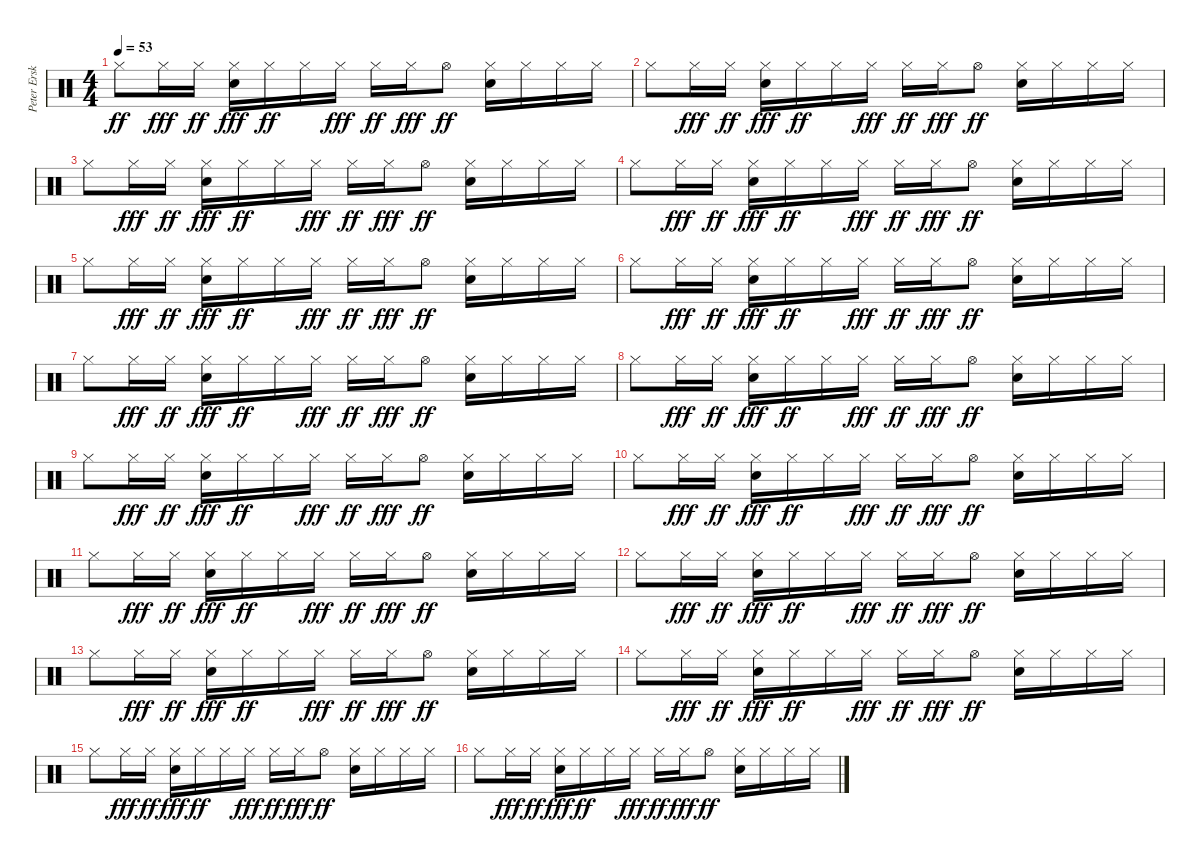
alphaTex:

\track ("Peter Erskine" "Peter Ersk") {instrument percussion}
\staff {score}
\articulation defaults
\ts (4 4)
\tempo 53
\clef neutral
\ks c "Hi-Hat (closed)".8{dy ff} "Hi-Hat (closed)".16{dy fff} "Hi-Hat (closed)".16{dy ff}
("Snare (hit) 2" "Hi-Hat (closed)").16{dy fff} "Hi-Hat (closed)".16{dy ff} "Hi-Hat (closed)".16 "Hi-Hat (closed)".16{dy fff} "Hi-Hat (closed)".16{dy ff} "Hi-Hat (closed)".16{dy fff} "Hi-Hat (open)".8{dy ff} ("Snare (hit) 2" "Hi-Hat (closed)").16 "Hi-Hat (closed)".16 "Hi-Hat (closed)".16 "Hi-Hat (closed)".16 |
"Hi-Hat (closed)".8 "Hi-Hat (closed)".16{dy fff} "Hi-Hat (closed)".16{dy ff} ("Snare (hit) 2" "Hi-Hat (closed)").16{dy fff} "Hi-Hat (closed)".16{dy ff} "Hi-Hat (closed)".16 "Hi-Hat (closed)".16{dy fff} "Hi-Hat (closed)".16{dy ff} "Hi-Hat (closed)".16{dy fff} "Hi-Hat (open)".8{dy ff} ("Snare (hit) 2" "Hi-Hat (closed)").16 "Hi-Hat (closed)".16 "Hi-Hat (closed)".16 "Hi-Hat (closed)".16 |
"Hi-Hat (closed)".8 "Hi-Hat (closed)".16{dy fff} "Hi-Hat (closed)".16{dy ff} ("Snare (hit) 2" "Hi-Hat (closed)").16{dy fff} "Hi-Hat (closed)".16{dy ff} "Hi-Hat (closed)".16 "Hi-Hat (closed)".16{dy fff} "Hi-Hat (closed)".16{dy ff} "Hi-Hat (closed)".16{dy fff} "Hi-Hat (open)".8{dy ff} ("Snare (hit) 2" "Hi-Hat (closed)").16 "Hi-Hat (closed)".16 "Hi-Hat (closed)".16 "Hi-Hat (closed)".16 |
"Hi-Hat (closed)".8 "Hi-Hat (closed)".16{dy fff} "Hi-Hat (closed)".16{dy ff} ("Snare (hit) 2" "Hi-Hat (closed)").16{dy fff} "Hi-Hat (closed)".16{dy ff} "Hi-Hat (closed)".16 "Hi-Hat (closed)".16{dy fff} "Hi-Hat (closed)".16{dy ff} "Hi-Hat (closed)".16{dy fff} "Hi-Hat (open)".8{dy ff} ("Snare (hit) 2" "Hi-Hat (closed)").16 "Hi-Hat (closed)".16 "Hi-Hat (closed)".16 "Hi-Hat (closed)".16 |
"Hi-Hat (closed)".8 "Hi-Hat (closed)".16{dy fff} "Hi-Hat (closed)".16{dy ff} ("Snare (hit) 2" "Hi-Hat (closed)").16{dy fff} "Hi-Hat (closed)".16{dy ff} "Hi-Hat (closed)".16 "Hi-Hat (closed)".16{dy fff} "Hi-Hat (closed)".16{dy ff} "Hi-Hat (closed)".16{dy fff} "Hi-Hat (open)".8{dy ff} ("Snare (hit) 2" "Hi-Hat (closed)").16 "Hi-Hat (closed)".16 "Hi-Hat (closed)".16 "Hi-Hat (closed)".16 |
"Hi-Hat (closed)".8 "Hi-Hat (closed)".16{dy fff} "Hi-Hat (closed)".16{dy ff} ("Snare (hit) 2" "Hi-Hat (closed)").16{dy fff} "Hi-Hat (closed)".16{dy ff} "Hi-Hat (closed)".16 "Hi-Hat (closed)".16{dy fff} "Hi-Hat (closed)".16{dy ff} "Hi-Hat (closed)".16{dy fff} "Hi-Hat (open)".8{dy ff} ("Snare (hit) 2" "Hi-Hat (closed)").16 "Hi-Hat (closed)".16 "Hi-Hat (closed)".16 "Hi-Hat (closed)".16 |
"Hi-Hat (closed)".8 "Hi-Hat (closed)".16{dy fff} "Hi-Hat (closed)".16{dy ff} ("Snare (hit) 2" "Hi-Hat (closed)").16{dy fff} "Hi-Hat (closed)".16{dy ff} "Hi-Hat (closed)".16 "Hi-Hat (closed)".16{dy fff} "Hi-Hat (closed)".16{dy ff} "Hi-Hat (closed)".16{dy fff} "Hi-Hat (open)".8{dy ff} ("Snare (hit) 2" "Hi-Hat (closed)").16 "Hi-Hat (closed)".16 "Hi-Hat (closed)".16 "Hi-Hat (closed)".16 |
"Hi-Hat (closed)".8 "Hi-Hat (closed)".16{dy fff} "Hi-Hat (closed)".16{dy ff} ("Snare (hit) 2" "Hi-Hat (closed)").16{dy fff} "Hi-Hat (closed)".16{dy ff} "Hi-Hat (closed)".16 "Hi-Hat (closed)".16{dy fff} "Hi-Hat (closed)".16{dy ff} "Hi-Hat (closed)".16{dy fff} "Hi-Hat (open)".8{dy ff} ("Snare (hit) 2" "Hi-Hat (closed)").16 "Hi-Hat (closed)".16 "Hi-Hat (closed)".16 "Hi-Hat (closed)".16 |
"Hi-Hat (closed)".8 "Hi-Hat (closed)".16{dy fff} "Hi-Hat (closed)".16{dy ff} ("Snare (hit) 2" "Hi-Hat (closed)").16{dy fff} "Hi-Hat (closed)".16{dy ff} "Hi-Hat (closed)".16 "Hi-Hat (closed)".16{dy fff} "Hi-Hat (closed)".16{dy ff} "Hi-Hat (closed)".16{dy fff} "Hi-Hat (open)".8{dy ff} ("Snare (hit) 2" "Hi-Hat (closed)").16 "Hi-Hat (closed)".16 "Hi-Hat (closed)".16 "Hi-Hat (closed)".16 |
"Hi-Hat (closed)".8 "Hi-Hat (closed)".16{dy fff} "Hi-Hat (closed)".16{dy ff} ("Snare (hit) 2" "Hi-Hat (closed)").16{dy fff} "Hi-Hat (closed)".16{dy ff} "Hi-Hat (closed)".16 "Hi-Hat (closed)".16{dy fff} "Hi-Hat (closed)".16{dy ff} "Hi-Hat (closed)".16{dy fff} "Hi-Hat (open)".8{dy ff} ("Snare (hit) 2" "Hi-Hat (closed)").16 "Hi-Hat (closed)".16 "Hi-Hat (closed)".16 "Hi-Hat (closed)".16 |
"Hi-Hat (closed)".8 "Hi-Hat (closed)".16{dy fff} "Hi-Hat (closed)".16{dy ff} ("Snare (hit) 2" "Hi-Hat (closed)").16{dy fff} "Hi-Hat (closed)".16{dy ff} "Hi-Hat (closed)".16 "Hi-Hat (closed)".16{dy fff} "Hi-Hat (closed)".16{dy ff} "Hi-Hat (closed)".16{dy fff} "Hi-Hat (open)".8{dy ff} ("Snare (hit) 2" "Hi-Hat (closed)").16 "Hi-Hat (closed)".16 "Hi-Hat (closed)".16 "Hi-Hat (closed)".16 |
"Hi-Hat (closed)".8 "Hi-Hat (closed)".16{dy fff} "Hi-Hat (closed)".16{dy ff} ("Snare (hit) 2" "Hi-Hat (closed)").16{dy fff} "Hi-Hat (closed)".16{dy ff} "Hi-Hat (closed)".16 "Hi-Hat (closed)".16{dy fff} "Hi-Hat (closed)".16{dy ff} "Hi-Hat (closed)".16{dy fff} "Hi-Hat (open)".8{dy ff} ("Snare (hit) 2" "Hi-Hat (closed)").16 "Hi-Hat (closed)".16 "Hi-Hat (closed)".16 "Hi-Hat (closed)".16 |
"Hi-Hat (closed)".8 "Hi-Hat (closed)".16{dy fff} "Hi-Hat (closed)".16{dy ff} ("Snare (hit) 2" "Hi-Hat (closed)").16{dy fff} "Hi-Hat (closed)".16{dy ff} "Hi-Hat (closed)".16 "Hi-Hat (closed)".16{dy fff} "Hi-Hat (closed)".16{dy ff} "Hi-Hat (closed)".16{dy fff} "Hi-Hat (open)".8{dy ff} ("Snare (hit) 2" "Hi-Hat (closed)").16 "Hi-Hat (closed)".16 "Hi-Hat (closed)".16 "Hi-Hat (closed)".16 |
"Hi-Hat (closed)".8 "Hi-Hat (closed)".16{dy fff} "Hi-Hat (closed)".16{dy ff} ("Snare (hit) 2" "Hi-Hat (closed)").16{dy fff} "Hi-Hat (closed)".16{dy ff} "Hi-Hat (closed)".16 "Hi-Hat (closed)".16{dy fff} "Hi-Hat (closed)".16{dy ff} "Hi-Hat (closed)".16{dy fff} "Hi-Hat (open)".8{dy ff} ("Snare (hit) 2" "Hi-Hat (closed)").16 "Hi-Hat (closed)".16 "Hi-Hat (closed)".16 "Hi-Hat (closed)".16 |
"Hi-Hat (closed)".8 "Hi-Hat (closed)".16{dy fff} "Hi-Hat (closed)".16{dy ff} ("Snare (hit) 2" "Hi-Hat (closed)").16{dy fff} "Hi-Hat (closed)".16{dy ff} "Hi-Hat (closed)".16 "Hi-Hat (closed)".16{dy fff} "Hi-Hat (closed)".16{dy ff} "Hi-Hat (closed)".16{dy fff} "Hi-Hat (open)".8{dy ff} ("Snare (hit) 2" "Hi-Hat (closed)").16 "Hi-Hat (closed)".16 "Hi-Hat (closed)".16 "Hi-Hat (closed)".16 |
"Hi-Hat (closed)".8 "Hi-Hat (closed)".16{dy fff} "Hi-Hat (closed)".16{dy ff} ("Snare (hit) 2" "Hi-Hat (closed)").16{dy fff} "Hi-Hat (closed)".16{dy ff} "Hi-Hat (closed)".16 "Hi-Hat (closed)".16{dy fff} "Hi-Hat (closed)".16{dy ff} "Hi-Hat (closed)".16{dy fff} "Hi-Hat (open)".8{dy ff} ("Snare (hit) 2" "Hi-Hat (closed)").16 "Hi-Hat (closed)".16 "Hi-Hat (closed)".16 "Hi-Hat (closed)".16
